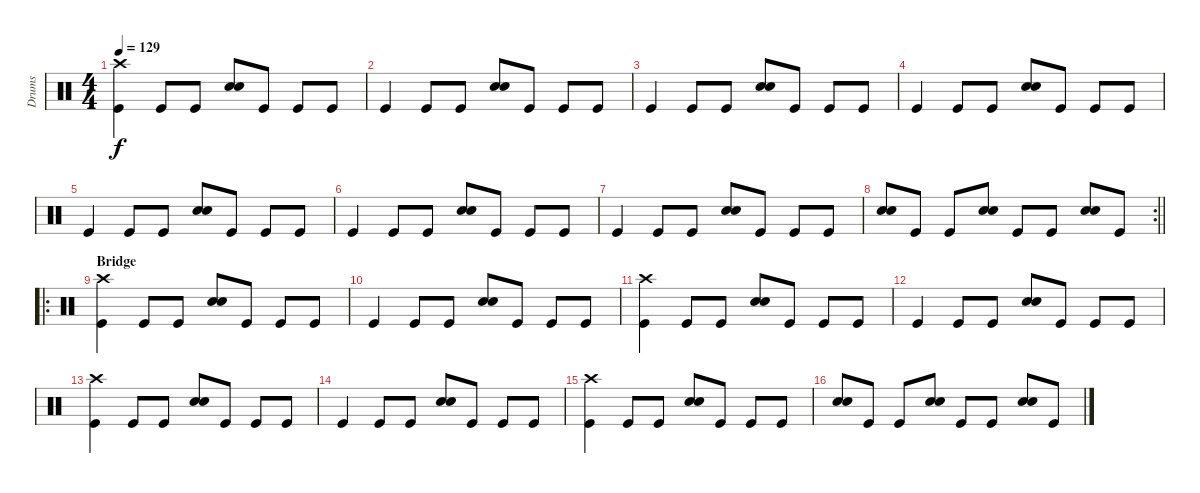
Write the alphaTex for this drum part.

\track ("Drums" "Drums") {instrument percussion}
\staff {score}
\articulation defaults
\ts (4 4)
\tempo 129
\clef neutral
\ks c
("Crash high (hit)" "Kick (hit)").4{dy f} "Kick (hit)".8 "Kick (hit)".8 ("Snare (hit) 2" "Electric Snare (hit)").8 "Kick (hit)".8 "Kick (hit)".8 "Kick (hit)".8 |
"Kick (hit)".4 "Kick (hit)".8 "Kick (hit)".8 ("Snare (hit) 2" "Electric Snare (hit)").8 "Kick (hit)".8 "Kick (hit)".8 "Kick (hit)".8 |
"Kick (hit)".4 "Kick (hit)".8 "Kick (hit)".8 ("Snare (hit) 2" "Electric Snare (hit)").8 "Kick (hit)".8 "Kick (hit)".8 "Kick (hit)".8 |
"Kick (hit)".4 "Kick (hit)".8 "Kick (hit)".8 ("Snare (hit) 2" "Electric Snare (hit)").8 "Kick (hit)".8 "Kick (hit)".8 "Kick (hit)".8 |
"Kick (hit)".4 "Kick (hit)".8 "Kick (hit)".8 ("Snare (hit) 2" "Electric Snare (hit)").8 "Kick (hit)".8 "Kick (hit)".8 "Kick (hit)".8 |
"Kick (hit)".4 "Kick (hit)".8 "Kick (hit)".8 ("Snare (hit) 2" "Electric Snare (hit)").8 "Kick (hit)".8 "Kick (hit)".8 "Kick (hit)".8 |
"Kick (hit)".4 "Kick (hit)".8 "Kick (hit)".8 ("Snare (hit) 2" "Electric Snare (hit)").8 "Kick (hit)".8 "Kick (hit)".8 "Kick (hit)".8 |
\rc 2
\barLineRight lightlight
("Snare (hit) 2" "Electric Snare (hit)").8 "Kick (hit)".8 "Kick (hit)".8 ("Snare (hit) 2" "Electric Snare (hit)").8 "Kick (hit)".8 "Kick (hit)".8 ("Snare (hit) 2" "Electric Snare (hit)").8 "Kick (hit)".8 |
\ro
\section ("" "Bridge")
("Crash high (hit)" "Kick (hit)").4 "Kick (hit)".8 "Kick (hit)".8 ("Snare (hit) 2" "Electric Snare (hit)").8 "Kick (hit)".8 "Kick (hit)".8 "Kick (hit)".8 |
"Kick (hit)".4 "Kick (hit)".8 "Kick (hit)".8 ("Snare (hit) 2" "Electric Snare (hit)").8 "Kick (hit)".8 "Kick (hit)".8 "Kick (hit)".8 |
("Crash high (hit)" "Kick (hit)").4 "Kick (hit)".8 "Kick (hit)".8 ("Snare (hit) 2" "Electric Snare (hit)").8 "Kick (hit)".8 "Kick (hit)".8 "Kick (hit)".8 |
"Kick (hit)".4 "Kick (hit)".8 "Kick (hit)".8 ("Snare (hit) 2" "Electric Snare (hit)").8 "Kick (hit)".8 "Kick (hit)".8 "Kick (hit)".8 |
("Crash high (hit)" "Kick (hit)").4 "Kick (hit)".8 "Kick (hit)".8 ("Snare (hit) 2" "Electric Snare (hit)").8 "Kick (hit)".8 "Kick (hit)".8 "Kick (hit)".8 |
"Kick (hit)".4 "Kick (hit)".8 "Kick (hit)".8 ("Snare (hit) 2" "Electric Snare (hit)").8 "Kick (hit)".8 "Kick (hit)".8 "Kick (hit)".8 |
("Crash high (hit)" "Kick (hit)").4 "Kick (hit)".8 "Kick (hit)".8 ("Snare (hit) 2" "Electric Snare (hit)").8 "Kick (hit)".8 "Kick (hit)".8 "Kick (hit)".8 |
("Snare (hit) 2" "Electric Snare (hit)").8 "Kick (hit)".8 "Kick (hit)".8 ("Snare (hit) 2" "Electric Snare (hit)").8 "Kick (hit)".8 "Kick (hit)".8 ("Snare (hit) 2" "Electric Snare (hit)").8 "Kick (hit)".8
